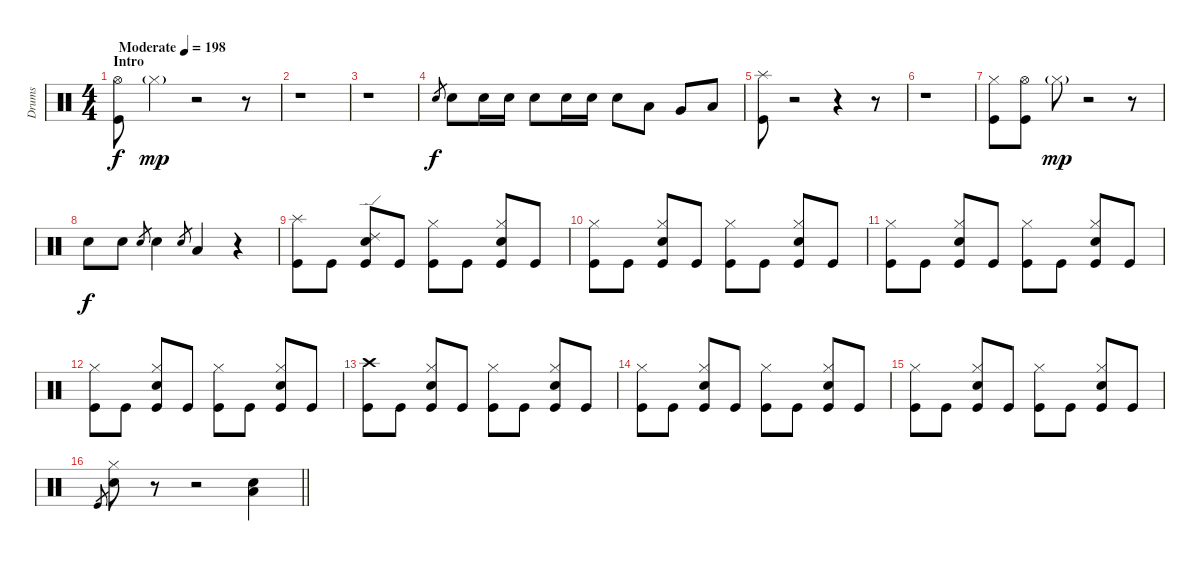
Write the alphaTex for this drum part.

\track ("Drums" "Drums") {instrument percussion}
\staff {score}
\articulation defaults
\ts (4 4)
\section ("" "Intro")
\tempo (198 "Moderate")
\clef neutral
\ks c
("Hi-Hat (open)" "Kick (hit)").8{dy f} "Hi-Hat (closed)"{g}.4{dy mp} r.2 r.8 |
r.1 |
r.1 |
"Electric Snare (hit)".8{gr dy f} "Electric Snare (hit)".8 "Electric Snare (hit)".16 "Electric Snare (hit)".16 "Electric Snare (hit)".8 "Electric Snare (hit)".16 "Electric Snare (hit)".16 "Electric Snare (hit)".8 "Low Tom (hit)".8 "Very Low Tom (hit)".8 "Low Floor Tom (hit)".8 |
("Splash (hit)" "Kick (hit)").8 r.2 r.4 r.8 |
r.1 |
("Hi-Hat (closed)" "Kick (hit)").8 ("Hi-Hat (open)" "Kick (hit)").8 "Hi-Hat (closed)"{g}.8{dy mp} r.2 r.8 |
"Electric Snare (hit)".8{dy f} "Electric Snare (hit)".8 "Electric Snare (hit)".8{gr} "Electric Snare (hit)".4 "Electric Snare (hit)".8{gr} "Low Floor Tom (hit)".4 r.4 |
("Splash (hit)" "Kick (hit)").8 "Kick (hit)".8 ("Ride (edge) 2" "Electric Snare (hit)" "Kick (hit)").8 "Kick (hit)".8 ("Hi-Hat (closed)" "Kick (hit)").8 "Kick (hit)".8 ("Hi-Hat (closed)" "Electric Snare (hit)" "Kick (hit)").8 "Kick (hit)".8 |
("Hi-Hat (closed)" "Kick (hit)").8 "Kick (hit)".8 ("Hi-Hat (closed)" "Electric Snare (hit)" "Kick (hit)").8 "Kick (hit)".8 ("Hi-Hat (closed)" "Kick (hit)").8 "Kick (hit)".8 ("Hi-Hat (closed)" "Electric Snare (hit)" "Kick (hit)").8 "Kick (hit)".8 |
("Hi-Hat (closed)" "Kick (hit)").8 "Kick (hit)".8 ("Hi-Hat (closed)" "Electric Snare (hit)" "Kick (hit)").8 "Kick (hit)".8 ("Hi-Hat (closed)" "Kick (hit)").8 "Kick (hit)".8 ("Hi-Hat (closed)" "Electric Snare (hit)" "Kick (hit)").8 "Kick (hit)".8 |
("Hi-Hat (closed)" "Kick (hit)").8 "Kick (hit)".8 ("Hi-Hat (closed)" "Electric Snare (hit)" "Kick (hit)").8 "Kick (hit)".8 ("Hi-Hat (closed)" "Kick (hit)").8 "Kick (hit)".8 ("Hi-Hat (closed)" "Electric Snare (hit)" "Kick (hit)").8 "Kick (hit)".8 |
("Crash high (hit)" "Kick (hit)").8 "Kick (hit)".8 ("Hi-Hat (closed)" "Electric Snare (hit)" "Kick (hit)").8 "Kick (hit)".8 ("Hi-Hat (closed)" "Kick (hit)").8 "Kick (hit)".8 ("Hi-Hat (closed)" "Electric Snare (hit)" "Kick (hit)").8 "Kick (hit)".8 |
("Hi-Hat (closed)" "Kick (hit)").8 "Kick (hit)".8 ("Hi-Hat (closed)" "Electric Snare (hit)" "Kick (hit)").8 "Kick (hit)".8 ("Hi-Hat (closed)" "Kick (hit)").8 "Kick (hit)".8 ("Hi-Hat (closed)" "Electric Snare (hit)" "Kick (hit)").8 "Kick (hit)".8 |
("Hi-Hat (closed)" "Kick (hit)").8 "Kick (hit)".8 ("Hi-Hat (closed)" "Electric Snare (hit)" "Kick (hit)").8 "Kick (hit)".8 ("Hi-Hat (closed)" "Kick (hit)").8 "Kick (hit)".8 ("Hi-Hat (closed)" "Electric Snare (hit)" "Kick (hit)").8 "Kick (hit)".8 |
\barLineRight lightlight "Kick (hit)".8{gr}
("Hi-Hat (closed)" "Electric Snare (hit)").8 r.8 r.2 ("Low Floor Tom (hit)" "Electric Snare (hit)").4
